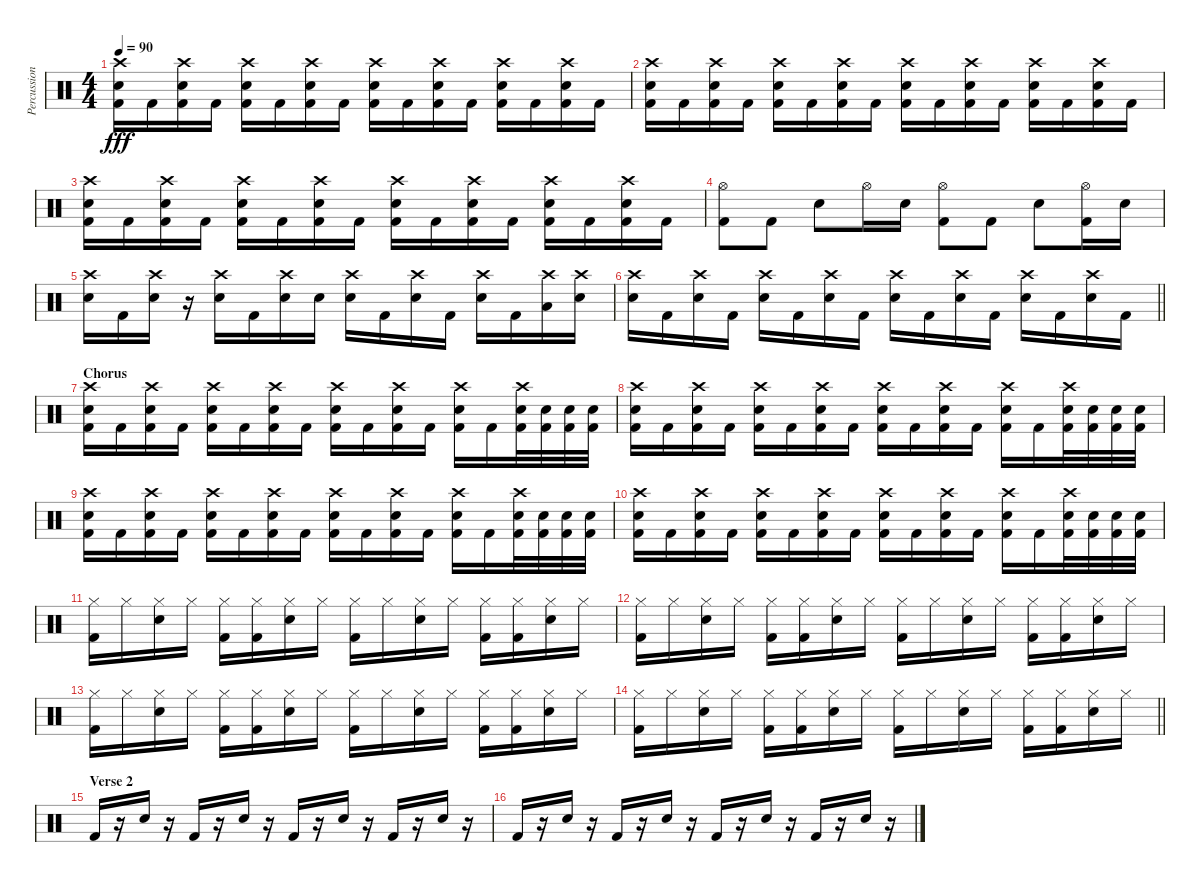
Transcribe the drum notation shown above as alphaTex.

\track ("Percussion" "Percussion") {instrument percussion}
\staff {score}
\articulation defaults
\ts (4 4)
\tempo 90
\clef neutral
\ks c
("Crash high (hit)" "Electric Snare (hit)" "Kick (hit) 2").16{dy fff} "Kick (hit) 2".16 ("Crash high (hit)" "Electric Snare (hit)" "Kick (hit) 2").16 "Kick (hit) 2".16 ("Crash high (hit)" "Electric Snare (hit)" "Kick (hit) 2").16 "Kick (hit) 2".16 ("Crash high (hit)" "Electric Snare (hit)" "Kick (hit) 2").16 "Kick (hit) 2".16 ("Crash high (hit)" "Electric Snare (hit)" "Kick (hit) 2").16 "Kick (hit) 2".16 ("Crash high (hit)" "Electric Snare (hit)" "Kick (hit) 2").16 "Kick (hit) 2".16 ("Crash high (hit)" "Electric Snare (hit)" "Kick (hit) 2").16 "Kick (hit) 2".16 ("Crash high (hit)" "Electric Snare (hit)" "Kick (hit) 2").16 "Kick (hit) 2".16 |
("Crash high (hit)" "Electric Snare (hit)" "Kick (hit) 2").16 "Kick (hit) 2".16 ("Crash high (hit)" "Electric Snare (hit)" "Kick (hit) 2").16 "Kick (hit) 2".16 ("Crash high (hit)" "Electric Snare (hit)" "Kick (hit) 2").16 "Kick (hit) 2".16 ("Crash high (hit)" "Electric Snare (hit)" "Kick (hit) 2").16 "Kick (hit) 2".16 ("Crash high (hit)" "Electric Snare (hit)" "Kick (hit) 2").16 "Kick (hit) 2".16 ("Crash high (hit)" "Electric Snare (hit)" "Kick (hit) 2").16 "Kick (hit) 2".16 ("Crash high (hit)" "Electric Snare (hit)" "Kick (hit) 2").16 "Kick (hit) 2".16 ("Crash high (hit)" "Electric Snare (hit)" "Kick (hit) 2").16 "Kick (hit) 2".16 |
("Crash high (hit)" "Electric Snare (hit)" "Kick (hit) 2").16 "Kick (hit) 2".16 ("Crash high (hit)" "Electric Snare (hit)" "Kick (hit) 2").16 "Kick (hit) 2".16 ("Crash high (hit)" "Electric Snare (hit)" "Kick (hit) 2").16 "Kick (hit) 2".16 ("Crash high (hit)" "Electric Snare (hit)" "Kick (hit) 2").16 "Kick (hit) 2".16 ("Crash high (hit)" "Electric Snare (hit)" "Kick (hit) 2").16 "Kick (hit) 2".16 ("Crash high (hit)" "Electric Snare (hit)" "Kick (hit) 2").16 "Kick (hit) 2".16 ("Crash high (hit)" "Electric Snare (hit)" "Kick (hit) 2").16 "Kick (hit) 2".16 ("Crash high (hit)" "Electric Snare (hit)" "Kick (hit) 2").16 "Kick (hit) 2".16 |
("Hi-Hat (open)" "Kick (hit) 2").8 "Kick (hit) 2".8 "Electric Snare (hit)".8 "Hi-Hat (open)".16 "Electric Snare (hit)".16 ("Hi-Hat (open)" "Kick (hit) 2").8 "Kick (hit) 2".8 "Electric Snare (hit)".8 ("Hi-Hat (open)" "Kick (hit) 2").16 "Electric Snare (hit)".16 |
("Crash high (hit)" "Electric Snare (hit)").16 "Kick (hit) 2".16 ("Crash high (hit)" "Electric Snare (hit)").16 r.16 ("Crash high (hit)" "Electric Snare (hit)").16 "Kick (hit) 2".16 ("Crash high (hit)" "Electric Snare (hit)").16 "Electric Snare (hit)".16 ("Crash high (hit)" "Electric Snare (hit)").16 "Kick (hit) 2".16 ("Crash high (hit)" "Electric Snare (hit)").16 "Kick (hit) 2".16 ("Crash high (hit)" "Electric Snare (hit)").16 "Kick (hit) 2".16 ("Crash high (hit)" "Low Tom (hit)").16 ("Crash high (hit)" "Electric Snare (hit)").16 |
\barLineRight lightlight
("Crash high (hit)" "Electric Snare (hit)").16 "Kick (hit) 2".16 ("Crash high (hit)" "Electric Snare (hit)").16 "Kick (hit) 2".16 ("Crash high (hit)" "Electric Snare (hit)").16 "Kick (hit) 2".16 ("Crash high (hit)" "Electric Snare (hit)").16 "Kick (hit) 2".16 ("Crash high (hit)" "Electric Snare (hit)").16 "Kick (hit) 2".16 ("Crash high (hit)" "Electric Snare (hit)").16 "Kick (hit) 2".16 ("Crash high (hit)" "Electric Snare (hit)").16 "Kick (hit) 2".16 ("Crash high (hit)" "Electric Snare (hit)").16 "Kick (hit) 2".16 |
\section ("" "Chorus")
("Crash high (hit)" "Electric Snare (hit)" "Kick (hit) 2").16 "Kick (hit) 2".16 ("Crash high (hit)" "Electric Snare (hit)" "Kick (hit) 2").16 "Kick (hit) 2".16 ("Crash high (hit)" "Electric Snare (hit)" "Kick (hit) 2").16 "Kick (hit) 2".16 ("Crash high (hit)" "Electric Snare (hit)" "Kick (hit) 2").16 "Kick (hit) 2".16 ("Crash high (hit)" "Electric Snare (hit)" "Kick (hit) 2").16 "Kick (hit) 2".16 ("Crash high (hit)" "Electric Snare (hit)" "Kick (hit) 2").16 "Kick (hit) 2".16 ("Crash high (hit)" "Electric Snare (hit)" "Kick (hit) 2").16 "Kick (hit) 2".16 ("Crash high (hit)" "Electric Snare (hit)" "Kick (hit) 2").32 ("Electric Snare (hit)" "Kick (hit) 2").32 ("Electric Snare (hit)" "Kick (hit) 2").32 ("Electric Snare (hit)" "Kick (hit) 2").32 |
("Crash high (hit)" "Electric Snare (hit)" "Kick (hit) 2").16 "Kick (hit) 2".16 ("Crash high (hit)" "Electric Snare (hit)" "Kick (hit) 2").16 "Kick (hit) 2".16 ("Crash high (hit)" "Electric Snare (hit)" "Kick (hit) 2").16 "Kick (hit) 2".16 ("Crash high (hit)" "Electric Snare (hit)" "Kick (hit) 2").16 "Kick (hit) 2".16 ("Crash high (hit)" "Electric Snare (hit)" "Kick (hit) 2").16 "Kick (hit) 2".16 ("Crash high (hit)" "Electric Snare (hit)" "Kick (hit) 2").16 "Kick (hit) 2".16 ("Crash high (hit)" "Electric Snare (hit)" "Kick (hit) 2").16 "Kick (hit) 2".16 ("Crash high (hit)" "Electric Snare (hit)" "Kick (hit) 2").32 ("Electric Snare (hit)" "Kick (hit) 2").32 ("Electric Snare (hit)" "Kick (hit) 2").32 ("Electric Snare (hit)" "Kick (hit) 2").32 |
("Crash high (hit)" "Electric Snare (hit)" "Kick (hit) 2").16 "Kick (hit) 2".16 ("Crash high (hit)" "Electric Snare (hit)" "Kick (hit) 2").16 "Kick (hit) 2".16 ("Crash high (hit)" "Electric Snare (hit)" "Kick (hit) 2").16 "Kick (hit) 2".16 ("Crash high (hit)" "Electric Snare (hit)" "Kick (hit) 2").16 "Kick (hit) 2".16 ("Crash high (hit)" "Electric Snare (hit)" "Kick (hit) 2").16 "Kick (hit) 2".16 ("Crash high (hit)" "Electric Snare (hit)" "Kick (hit) 2").16 "Kick (hit) 2".16 ("Crash high (hit)" "Electric Snare (hit)" "Kick (hit) 2").16 "Kick (hit) 2".16 ("Crash high (hit)" "Electric Snare (hit)" "Kick (hit) 2").32 ("Electric Snare (hit)" "Kick (hit) 2").32 ("Electric Snare (hit)" "Kick (hit) 2").32 ("Electric Snare (hit)" "Kick (hit) 2").32 |
("Crash high (hit)" "Electric Snare (hit)" "Kick (hit) 2").16 "Kick (hit) 2".16 ("Crash high (hit)" "Electric Snare (hit)" "Kick (hit) 2").16 "Kick (hit) 2".16 ("Crash high (hit)" "Electric Snare (hit)" "Kick (hit) 2").16 "Kick (hit) 2".16 ("Crash high (hit)" "Electric Snare (hit)" "Kick (hit) 2").16 "Kick (hit) 2".16 ("Crash high (hit)" "Electric Snare (hit)" "Kick (hit) 2").16 "Kick (hit) 2".16 ("Crash high (hit)" "Electric Snare (hit)" "Kick (hit) 2").16 "Kick (hit) 2".16 ("Crash high (hit)" "Electric Snare (hit)" "Kick (hit) 2").16 "Kick (hit) 2".16 ("Crash high (hit)" "Electric Snare (hit)" "Kick (hit) 2").32 ("Electric Snare (hit)" "Kick (hit) 2").32 ("Electric Snare (hit)" "Kick (hit) 2").32 ("Electric Snare (hit)" "Kick (hit) 2").32 |
("Hi-Hat (closed)" "Kick (hit) 2").16 "Hi-Hat (closed)".16 ("Hi-Hat (closed)" "Electric Snare (hit)").16 "Hi-Hat (closed)".16 ("Hi-Hat (closed)" "Kick (hit) 2").16 ("Hi-Hat (closed)" "Kick (hit) 2").16 ("Hi-Hat (closed)" "Electric Snare (hit)").16 "Hi-Hat (closed)".16 ("Hi-Hat (closed)" "Kick (hit) 2").16 "Hi-Hat (closed)".16 ("Hi-Hat (closed)" "Electric Snare (hit)").16 "Hi-Hat (closed)".16 ("Hi-Hat (closed)" "Kick (hit) 2").16 ("Hi-Hat (closed)" "Kick (hit) 2").16 ("Hi-Hat (closed)" "Electric Snare (hit)").16 "Hi-Hat (closed)".16 |
("Hi-Hat (closed)" "Kick (hit) 2").16 "Hi-Hat (closed)".16 ("Hi-Hat (closed)" "Electric Snare (hit)").16 "Hi-Hat (closed)".16 ("Hi-Hat (closed)" "Kick (hit) 2").16 ("Hi-Hat (closed)" "Kick (hit) 2").16 ("Hi-Hat (closed)" "Electric Snare (hit)").16 "Hi-Hat (closed)".16 ("Hi-Hat (closed)" "Kick (hit) 2").16 "Hi-Hat (closed)".16 ("Hi-Hat (closed)" "Electric Snare (hit)").16 "Hi-Hat (closed)".16 ("Hi-Hat (closed)" "Kick (hit) 2").16 ("Hi-Hat (closed)" "Kick (hit) 2").16 ("Hi-Hat (closed)" "Electric Snare (hit)").16 "Hi-Hat (closed)".16 |
("Hi-Hat (closed)" "Kick (hit) 2").16 "Hi-Hat (closed)".16 ("Hi-Hat (closed)" "Electric Snare (hit)").16 "Hi-Hat (closed)".16 ("Hi-Hat (closed)" "Kick (hit) 2").16 ("Hi-Hat (closed)" "Kick (hit) 2").16 ("Hi-Hat (closed)" "Electric Snare (hit)").16 "Hi-Hat (closed)".16 ("Hi-Hat (closed)" "Kick (hit) 2").16 "Hi-Hat (closed)".16 ("Hi-Hat (closed)" "Electric Snare (hit)").16 "Hi-Hat (closed)".16 ("Hi-Hat (closed)" "Kick (hit) 2").16 ("Hi-Hat (closed)" "Kick (hit) 2").16 ("Hi-Hat (closed)" "Electric Snare (hit)").16 "Hi-Hat (closed)".16 |
\barLineRight lightlight
("Hi-Hat (closed)" "Kick (hit) 2").16 "Hi-Hat (closed)".16 ("Hi-Hat (closed)" "Electric Snare (hit)").16 "Hi-Hat (closed)".16 ("Hi-Hat (closed)" "Kick (hit) 2").16 ("Hi-Hat (closed)" "Kick (hit) 2").16 ("Hi-Hat (closed)" "Electric Snare (hit)").16 "Hi-Hat (closed)".16 ("Hi-Hat (closed)" "Kick (hit) 2").16 "Hi-Hat (closed)".16 ("Hi-Hat (closed)" "Electric Snare (hit)").16 "Hi-Hat (closed)".16 ("Hi-Hat (closed)" "Kick (hit) 2").16 ("Hi-Hat (closed)" "Kick (hit) 2").16 ("Hi-Hat (closed)" "Electric Snare (hit)").16 "Hi-Hat (closed)".16 |
\section ("" "Verse 2")
"Kick (hit) 2".16 r.16 "Electric Snare (hit)".16 r.16 "Kick (hit) 2".16 r.16 "Electric Snare (hit)".16 r.16 "Kick (hit) 2".16 r.16 "Electric Snare (hit)".16 r.16 "Kick (hit) 2".16 r.16 "Electric Snare (hit)".16 r.16 |
"Kick (hit) 2".16 r.16 "Electric Snare (hit)".16 r.16 "Kick (hit) 2".16 r.16 "Electric Snare (hit)".16 r.16 "Kick (hit) 2".16 r.16 "Electric Snare (hit)".16 r.16 "Kick (hit) 2".16 r.16 "Electric Snare (hit)".16 r.16
